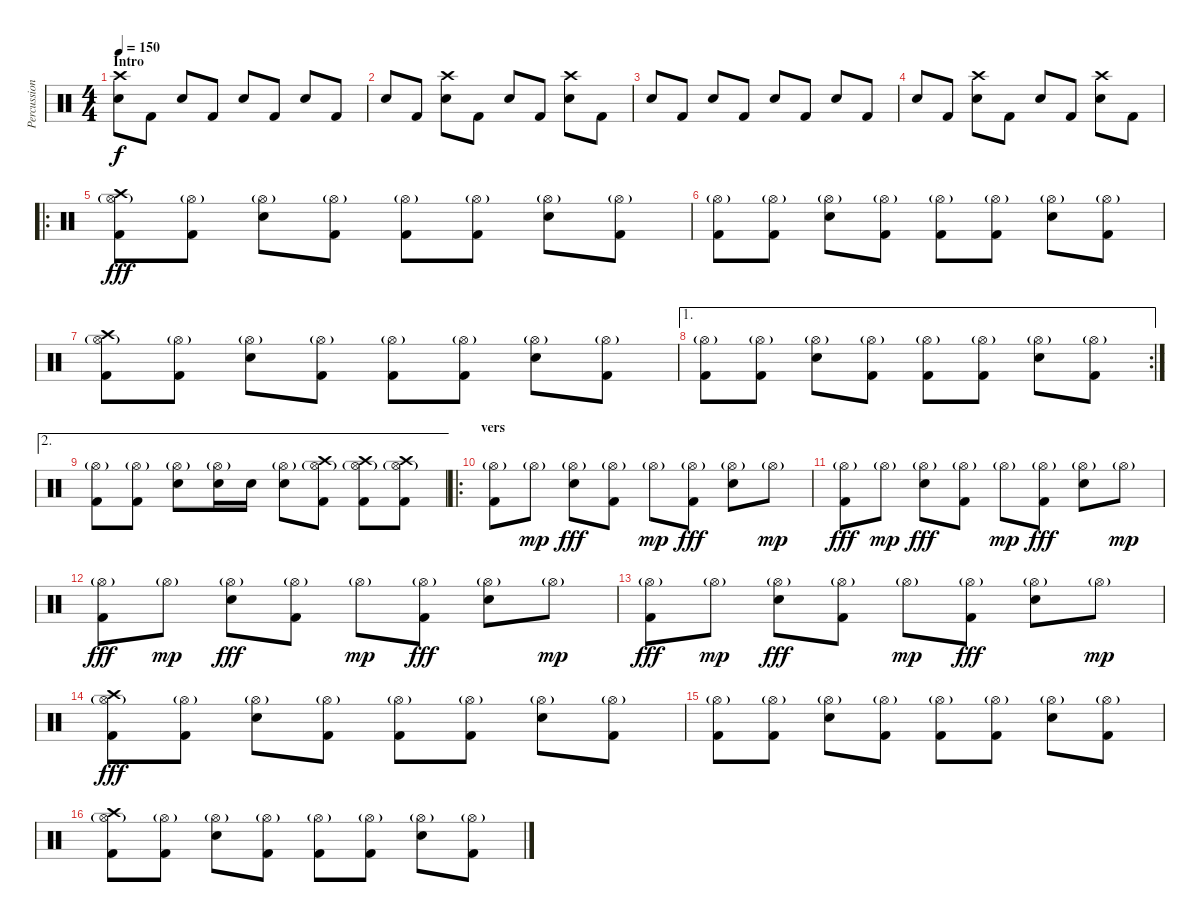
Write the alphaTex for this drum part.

\track ("Percussion" "Percussion") {instrument percussion}
\staff {score}
\articulation defaults
\ts (4 4)
\section ("" "Intro")
\tempo 150
\clef neutral
\ks c
("Crash high (hit)" "Snare (hit) 2").8{dy f} "Kick (hit) 2".8 "Snare (hit) 2".8 "Kick (hit) 2".8 "Snare (hit) 2".8 "Kick (hit) 2".8 "Snare (hit) 2".8 "Kick (hit) 2".8 |
"Snare (hit) 2".8 "Kick (hit) 2".8 ("Crash high (hit)" "Snare (hit) 2").8 "Kick (hit) 2".8 "Snare (hit) 2".8 "Kick (hit) 2".8 ("Crash high (hit)" "Snare (hit) 2").8 "Kick (hit) 2".8 |
"Snare (hit) 2".8 "Kick (hit) 2".8 "Snare (hit) 2".8 "Kick (hit) 2".8 "Snare (hit) 2".8 "Kick (hit) 2".8 "Snare (hit) 2".8 "Kick (hit) 2".8 |
"Snare (hit) 2".8 "Kick (hit) 2".8 ("Crash high (hit)" "Snare (hit) 2").8 "Kick (hit) 2".8 "Snare (hit) 2".8 "Kick (hit) 2".8 ("Crash high (hit)" "Snare (hit) 2").8 "Kick (hit) 2".8 |
\ro
("Crash high (hit)" "Hi-Hat (open)"{g} "Kick (hit) 2").8{dy fff} ("Hi-Hat (open)"{g} "Kick (hit) 2").8 ("Hi-Hat (open)"{g} "Snare (hit) 2").8 ("Hi-Hat (open)"{g} "Kick (hit) 2").8 ("Hi-Hat (open)"{g} "Kick (hit) 2").8 ("Hi-Hat (open)"{g} "Kick (hit) 2").8 ("Hi-Hat (open)"{g} "Snare (hit) 2").8 ("Hi-Hat (open)"{g} "Kick (hit) 2").8 |
("Hi-Hat (open)"{g} "Kick (hit) 2").8 ("Hi-Hat (open)"{g} "Kick (hit) 2").8 ("Hi-Hat (open)"{g} "Snare (hit) 2").8 ("Hi-Hat (open)"{g} "Kick (hit) 2").8 ("Hi-Hat (open)"{g} "Kick (hit) 2").8 ("Hi-Hat (open)"{g} "Kick (hit) 2").8 ("Hi-Hat (open)"{g} "Snare (hit) 2").8 ("Hi-Hat (open)"{g} "Kick (hit) 2").8 |
("Crash high (hit)" "Hi-Hat (open)"{g} "Kick (hit) 2").8 ("Hi-Hat (open)"{g} "Kick (hit) 2").8 ("Hi-Hat (open)"{g} "Snare (hit) 2").8 ("Hi-Hat (open)"{g} "Kick (hit) 2").8 ("Hi-Hat (open)"{g} "Kick (hit) 2").8 ("Hi-Hat (open)"{g} "Kick (hit) 2").8 ("Hi-Hat (open)"{g} "Snare (hit) 2").8 ("Hi-Hat (open)"{g} "Kick (hit) 2").8 |
\ae 1
\rc 2
("Hi-Hat (open)"{g} "Kick (hit) 2").8 ("Hi-Hat (open)"{g} "Kick (hit) 2").8 ("Hi-Hat (open)"{g} "Snare (hit) 2").8 ("Hi-Hat (open)"{g} "Kick (hit) 2").8 ("Hi-Hat (open)"{g} "Kick (hit) 2").8 ("Hi-Hat (open)"{g} "Kick (hit) 2").8 ("Hi-Hat (open)"{g} "Snare (hit) 2").8 ("Hi-Hat (open)"{g} "Kick (hit) 2").8 |
\ae 2
("Hi-Hat (open)"{g} "Kick (hit) 2").8 ("Hi-Hat (open)"{g} "Kick (hit) 2").8 ("Hi-Hat (open)"{g} "Snare (hit) 2").8 ("Hi-Hat (open)"{g} "Snare (hit) 2").16 "Snare (hit) 2".16 ("Hi-Hat (open)"{g} "Snare (hit) 2").8 ("Crash high (hit)" "Hi-Hat (open)"{g} "Kick (hit) 2").8 ("Crash high (hit)" "Hi-Hat (open)"{g} "Kick (hit) 2").8 ("Crash high (hit)" "Hi-Hat (open)"{g} "Kick (hit) 2").8 |
\ro
\section ("" "vers")
("Hi-Hat (open)"{g} "Kick (hit) 2").8 "Hi-Hat (open)"{g}.8{dy mp} ("Hi-Hat (open)"{g} "Snare (hit) 2").8{dy fff} ("Hi-Hat (open)"{g} "Kick (hit) 2").8 "Hi-Hat (open)"{g}.8{dy mp} ("Hi-Hat (open)"{g} "Kick (hit) 2").8{dy fff} ("Hi-Hat (open)"{g} "Snare (hit) 2").8 "Hi-Hat (open)"{g}.8{dy mp} |
("Hi-Hat (open)"{g} "Kick (hit) 2").8{dy fff} "Hi-Hat (open)"{g}.8{dy mp} ("Hi-Hat (open)"{g} "Snare (hit) 2").8{dy fff} ("Hi-Hat (open)"{g} "Kick (hit) 2").8 "Hi-Hat (open)"{g}.8{dy mp} ("Hi-Hat (open)"{g} "Kick (hit) 2").8{dy fff} ("Hi-Hat (open)"{g} "Snare (hit) 2").8 "Hi-Hat (open)"{g}.8{dy mp} |
("Hi-Hat (open)"{g} "Kick (hit) 2").8{dy fff} "Hi-Hat (open)"{g}.8{dy mp} ("Hi-Hat (open)"{g} "Snare (hit) 2").8{dy fff} ("Hi-Hat (open)"{g} "Kick (hit) 2").8 "Hi-Hat (open)"{g}.8{dy mp} ("Hi-Hat (open)"{g} "Kick (hit) 2").8{dy fff} ("Hi-Hat (open)"{g} "Snare (hit) 2").8 "Hi-Hat (open)"{g}.8{dy mp} |
("Hi-Hat (open)"{g} "Kick (hit) 2").8{dy fff} "Hi-Hat (open)"{g}.8{dy mp} ("Hi-Hat (open)"{g} "Snare (hit) 2").8{dy fff} ("Hi-Hat (open)"{g} "Kick (hit) 2").8 "Hi-Hat (open)"{g}.8{dy mp} ("Hi-Hat (open)"{g} "Kick (hit) 2").8{dy fff} ("Hi-Hat (open)"{g} "Snare (hit) 2").8 "Hi-Hat (open)"{g}.8{dy mp} |
("Crash high (hit)" "Hi-Hat (open)"{g} "Kick (hit) 2").8{dy fff} ("Hi-Hat (open)"{g} "Kick (hit) 2").8 ("Hi-Hat (open)"{g} "Snare (hit) 2").8 ("Hi-Hat (open)"{g} "Kick (hit) 2").8 ("Hi-Hat (open)"{g} "Kick (hit) 2").8 ("Hi-Hat (open)"{g} "Kick (hit) 2").8 ("Hi-Hat (open)"{g} "Snare (hit) 2").8 ("Hi-Hat (open)"{g} "Kick (hit) 2").8 |
("Hi-Hat (open)"{g} "Kick (hit) 2").8 ("Hi-Hat (open)"{g} "Kick (hit) 2").8 ("Hi-Hat (open)"{g} "Snare (hit) 2").8 ("Hi-Hat (open)"{g} "Kick (hit) 2").8 ("Hi-Hat (open)"{g} "Kick (hit) 2").8 ("Hi-Hat (open)"{g} "Kick (hit) 2").8 ("Hi-Hat (open)"{g} "Snare (hit) 2").8 ("Hi-Hat (open)"{g} "Kick (hit) 2").8 |
("Crash high (hit)" "Hi-Hat (open)"{g} "Kick (hit) 2").8 ("Hi-Hat (open)"{g} "Kick (hit) 2").8 ("Hi-Hat (open)"{g} "Snare (hit) 2").8 ("Hi-Hat (open)"{g} "Kick (hit) 2").8 ("Hi-Hat (open)"{g} "Kick (hit) 2").8 ("Hi-Hat (open)"{g} "Kick (hit) 2").8 ("Hi-Hat (open)"{g} "Snare (hit) 2").8 ("Hi-Hat (open)"{g} "Kick (hit) 2").8
